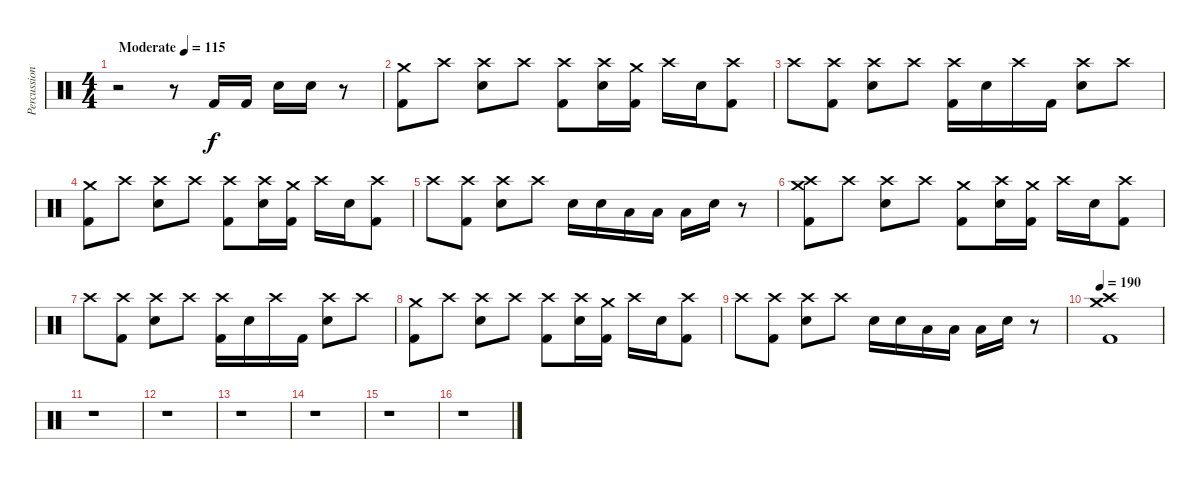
\track ("Percussion" "Percussion") {instrument percussion}
\staff {score}
\articulation defaults
\ts (4 4)
\tempo (115 "Moderate")
\clef neutral
\ks c
r.2{dy f} r.8 "Kick (hit) 2".16 "Kick (hit) 2".16 "Electric Snare (hit)".16 "Electric Snare (hit)".16 r.8 |
("Crash medium (hit)" "Kick (hit) 2").8 "Crash high (hit)".8 ("Crash high (hit)" "Electric Snare (hit)").8 "Crash high (hit)".8 ("Crash high (hit)" "Kick (hit) 2").8 ("Crash high (hit)" "Electric Snare (hit)").16 ("Crash medium (hit)" "Kick (hit) 2").16 "Crash high (hit)".16 "Electric Snare (hit)".16 ("Crash high (hit)" "Kick (hit) 2").8 |
"Crash high (hit)".8 ("Crash high (hit)" "Kick (hit) 2").8 ("Crash high (hit)" "Electric Snare (hit)").8 "Crash high (hit)".8 ("Crash high (hit)" "Kick (hit) 2").16 "Electric Snare (hit)".16 "Crash high (hit)".16 "Kick (hit) 2".16 ("Crash high (hit)" "Electric Snare (hit)").8 "Crash high (hit)".8 |
("Crash medium (hit)" "Kick (hit) 2").8 "Crash high (hit)".8 ("Crash high (hit)" "Electric Snare (hit)").8 "Crash high (hit)".8 ("Crash high (hit)" "Kick (hit) 2").8 ("Crash high (hit)" "Electric Snare (hit)").16 ("Crash medium (hit)" "Kick (hit) 2").16 "Crash high (hit)".16 "Electric Snare (hit)".16 ("Crash high (hit)" "Kick (hit) 2").8 |
"Crash high (hit)".8 ("Crash high (hit)" "Kick (hit) 2").8 ("Crash high (hit)" "Electric Snare (hit)").8 "Crash high (hit)".8 "Electric Snare (hit)".16 "Electric Snare (hit)".16 "Low Tom (hit)".16 "Low Floor Tom (hit)".16 "Low Floor Tom (hit)".16 "Electric Snare (hit)".16 r.8 |
("Crash high (hit)" "Crash medium (hit)" "Kick (hit) 2").8 "Crash high (hit)".8 ("Crash high (hit)" "Electric Snare (hit)").8 "Crash high (hit)".8 ("Crash medium (hit)" "Kick (hit) 2").8 ("Crash high (hit)" "Electric Snare (hit)").16 ("Crash medium (hit)" "Kick (hit) 2").16 "Crash high (hit)".16 "Electric Snare (hit)".16 ("Crash high (hit)" "Kick (hit) 2").8 |
"Crash high (hit)".8 ("Crash high (hit)" "Kick (hit) 2").8 ("Crash high (hit)" "Electric Snare (hit)").8 "Crash high (hit)".8 ("Crash high (hit)" "Kick (hit) 2").16 "Electric Snare (hit)".16 "Crash high (hit)".16 "Kick (hit) 2".16 ("Crash high (hit)" "Electric Snare (hit)").8 "Crash high (hit)".8 |
("Crash medium (hit)" "Kick (hit) 2").8 "Crash high (hit)".8 ("Crash high (hit)" "Electric Snare (hit)").8 "Crash high (hit)".8 ("Crash high (hit)" "Kick (hit) 2").8 ("Crash high (hit)" "Electric Snare (hit)").16 ("Crash medium (hit)" "Kick (hit) 2").16 "Crash high (hit)".16 "Electric Snare (hit)".16 ("Crash high (hit)" "Kick (hit) 2").8 |
"Crash high (hit)".8 ("Crash high (hit)" "Kick (hit) 2").8 ("Crash high (hit)" "Electric Snare (hit)").8 "Crash high (hit)".8 "Electric Snare (hit)".16 "Electric Snare (hit)".16 "Low Tom (hit)".16 "Low Floor Tom (hit)".16 "Low Floor Tom (hit)".16 "Electric Snare (hit)".16 r.8 |
\tempo 190
("Crash medium (hit)" "Crash high (hit)" "Kick (hit) 2").1 |
r.1 |
r.1 |
r.1 |
r.1 |
r.1 |
r.1
